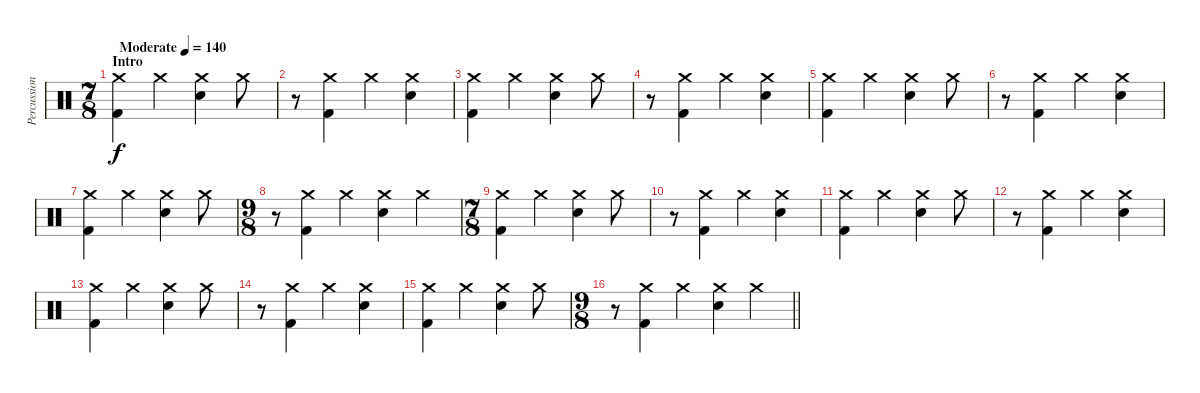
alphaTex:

\track ("Percussion" "Percussion") {instrument percussion}
\staff {score}
\articulation defaults
\ts (7 8)
\section ("" "Intro")
\tempo (140 "Moderate")
\clef neutral
\ks c
("Crash medium (hit)" "Kick (hit) 2").4{dy f} "Crash medium (hit)".4 ("Crash medium (hit)" "Electric Snare (hit)").4 "Crash medium (hit)".8 |
r.8 ("Crash medium (hit)" "Kick (hit) 2").4 "Crash medium (hit)".4 ("Crash medium (hit)" "Electric Snare (hit)").4 |
("Crash medium (hit)" "Kick (hit) 2").4 "Crash medium (hit)".4 ("Crash medium (hit)" "Electric Snare (hit)").4 "Crash medium (hit)".8 |
r.8 ("Crash medium (hit)" "Kick (hit) 2").4 "Crash medium (hit)".4 ("Crash medium (hit)" "Electric Snare (hit)").4 |
("Crash medium (hit)" "Kick (hit) 2").4 "Crash medium (hit)".4 ("Crash medium (hit)" "Electric Snare (hit)").4 "Crash medium (hit)".8 |
r.8 ("Crash medium (hit)" "Kick (hit) 2").4 "Crash medium (hit)".4 ("Crash medium (hit)" "Electric Snare (hit)").4 |
("Crash medium (hit)" "Kick (hit) 2").4 "Crash medium (hit)".4 ("Crash medium (hit)" "Electric Snare (hit)").4 "Crash medium (hit)".8 |
\ts (9 8)
r.8 ("Crash medium (hit)" "Kick (hit) 2").4 "Crash medium (hit)".4 ("Crash medium (hit)" "Electric Snare (hit)").4 "Crash medium (hit)".4 |
\ts (7 8)
("Crash medium (hit)" "Kick (hit) 2").4 "Crash medium (hit)".4 ("Crash medium (hit)" "Electric Snare (hit)").4 "Crash medium (hit)".8 |
r.8 ("Crash medium (hit)" "Kick (hit) 2").4 "Crash medium (hit)".4 ("Crash medium (hit)" "Electric Snare (hit)").4 |
("Crash medium (hit)" "Kick (hit) 2").4 "Crash medium (hit)".4 ("Crash medium (hit)" "Electric Snare (hit)").4 "Crash medium (hit)".8 |
r.8 ("Crash medium (hit)" "Kick (hit) 2").4 "Crash medium (hit)".4 ("Crash medium (hit)" "Electric Snare (hit)").4 |
("Crash medium (hit)" "Kick (hit) 2").4 "Crash medium (hit)".4 ("Crash medium (hit)" "Electric Snare (hit)").4 "Crash medium (hit)".8 |
r.8 ("Crash medium (hit)" "Kick (hit) 2").4 "Crash medium (hit)".4 ("Crash medium (hit)" "Electric Snare (hit)").4 |
("Crash medium (hit)" "Kick (hit) 2").4 "Crash medium (hit)".4 ("Crash medium (hit)" "Electric Snare (hit)").4 "Crash medium (hit)".8 |
\ts (9 8)
\barLineRight lightlight
r.8 ("Crash medium (hit)" "Kick (hit) 2").4 "Crash medium (hit)".4 ("Crash medium (hit)" "Electric Snare (hit)").4 "Crash medium (hit)".4
